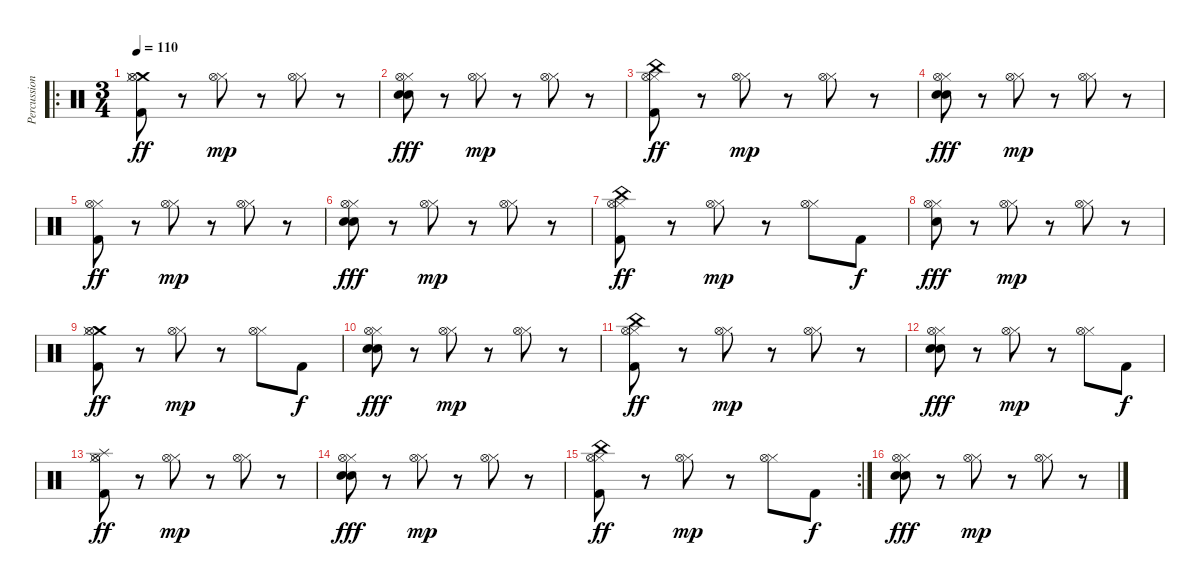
\track ("Percussion" "Percussion") {instrument percussion}
\staff {score}
\articulation defaults
\ro
\ts (3 4)
\tempo 110
\clef neutral
\ks c
("Crash medium (hit)" "Hi-Hat (closed)" "Hi-Hat (open)" "Kick (hit) 2").8{dy ff} r.8 ("Hi-Hat (closed)" "Hi-Hat (open)").8{dy mp} r.8 ("Hi-Hat (closed)" "Hi-Hat (open)").8 r.8 |
("Hi-Hat (closed)" "Hi-Hat (open)" "Snare (hit) 2" "Electric Snare (hit)").8{dy fff} r.8 ("Hi-Hat (closed)" "Hi-Hat (open)").8{dy mp} r.8 ("Hi-Hat (closed)" "Hi-Hat (open)").8 r.8 |
("China (hit)" "Hi-Hat (closed)" "Hi-Hat (open)" "Kick (hit) 2").8{dy ff} r.8 ("Hi-Hat (closed)" "Hi-Hat (open)").8{dy mp} r.8 ("Hi-Hat (closed)" "Hi-Hat (open)").8 r.8 |
("Hi-Hat (closed)" "Hi-Hat (open)" "Snare (hit) 2" "Electric Snare (hit)").8{dy fff} r.8 ("Hi-Hat (closed)" "Hi-Hat (open)").8{dy mp} r.8 ("Hi-Hat (closed)" "Hi-Hat (open)").8 r.8 |
("Hi-Hat (closed)" "Hi-Hat (open)" "Kick (hit) 2").8{dy ff} r.8 ("Hi-Hat (closed)" "Hi-Hat (open)").8{dy mp} r.8 ("Hi-Hat (closed)" "Hi-Hat (open)").8 r.8 |
("Hi-Hat (closed)" "Hi-Hat (open)" "Snare (hit) 2" "Electric Snare (hit)").8{dy fff} r.8 ("Hi-Hat (closed)" "Hi-Hat (open)").8{dy mp} r.8 ("Hi-Hat (closed)" "Hi-Hat (open)").8 r.8 |
("China (hit)" "Hi-Hat (closed)" "Hi-Hat (open)" "Kick (hit) 2").8{dy ff} r.8 ("Hi-Hat (closed)" "Hi-Hat (open)").8{dy mp} r.8 ("Hi-Hat (closed)" "Hi-Hat (open)").8 "Kick (hit) 2".8{dy f} |
("Hi-Hat (closed)" "Hi-Hat (open)" "Snare (hit) 2").8{dy fff} r.8 ("Hi-Hat (closed)" "Hi-Hat (open)").8{dy mp} r.8 ("Hi-Hat (closed)" "Hi-Hat (open)").8 r.8 |
("Crash medium (hit)" "Hi-Hat (closed)" "Hi-Hat (open)" "Kick (hit) 2").8{dy ff} r.8 ("Hi-Hat (closed)" "Hi-Hat (open)").8{dy mp} r.8 ("Hi-Hat (closed)" "Hi-Hat (open)").8 "Kick (hit) 2".8{dy f} |
("Hi-Hat (closed)" "Hi-Hat (open)" "Snare (hit) 2" "Electric Snare (hit)").8{dy fff} r.8 ("Hi-Hat (closed)" "Hi-Hat (open)").8{dy mp} r.8 ("Hi-Hat (closed)" "Hi-Hat (open)").8 r.8 |
("China (hit)" "Hi-Hat (closed)" "Hi-Hat (open)" "Kick (hit) 2").8{dy ff} r.8 ("Hi-Hat (closed)" "Hi-Hat (open)").8{dy mp} r.8 ("Hi-Hat (closed)" "Hi-Hat (open)").8 r.8 |
("Hi-Hat (closed)" "Hi-Hat (open)" "Snare (hit) 2" "Electric Snare (hit)").8{dy fff} r.8 ("Hi-Hat (closed)" "Hi-Hat (open)").8{dy mp} r.8 ("Hi-Hat (closed)" "Hi-Hat (open)").8 "Kick (hit) 2".8{dy f} |
("Splash (hit)" "Hi-Hat (closed)" "Hi-Hat (open)" "Kick (hit) 2").8{dy ff} r.8 ("Hi-Hat (closed)" "Hi-Hat (open)").8{dy mp} r.8 ("Hi-Hat (closed)" "Hi-Hat (open)").8 r.8 |
("Hi-Hat (closed)" "Hi-Hat (open)" "Snare (hit) 2" "Electric Snare (hit)").8{dy fff} r.8 ("Hi-Hat (closed)" "Hi-Hat (open)").8{dy mp} r.8 ("Hi-Hat (closed)" "Hi-Hat (open)").8 r.8 |
\rc 2
("China (hit)" "Hi-Hat (closed)" "Hi-Hat (open)" "Kick (hit) 2").8{dy ff} r.8 ("Hi-Hat (closed)" "Hi-Hat (open)").8{dy mp} r.8 ("Hi-Hat (closed)" "Hi-Hat (open)").8 "Kick (hit) 2".8{dy f} |
("Hi-Hat (closed)" "Hi-Hat (open)" "Snare (hit) 2" "Electric Snare (hit)").8{dy fff} r.8 ("Hi-Hat (closed)" "Hi-Hat (open)").8{dy mp} r.8 ("Hi-Hat (closed)" "Hi-Hat (open)").8 r.8
